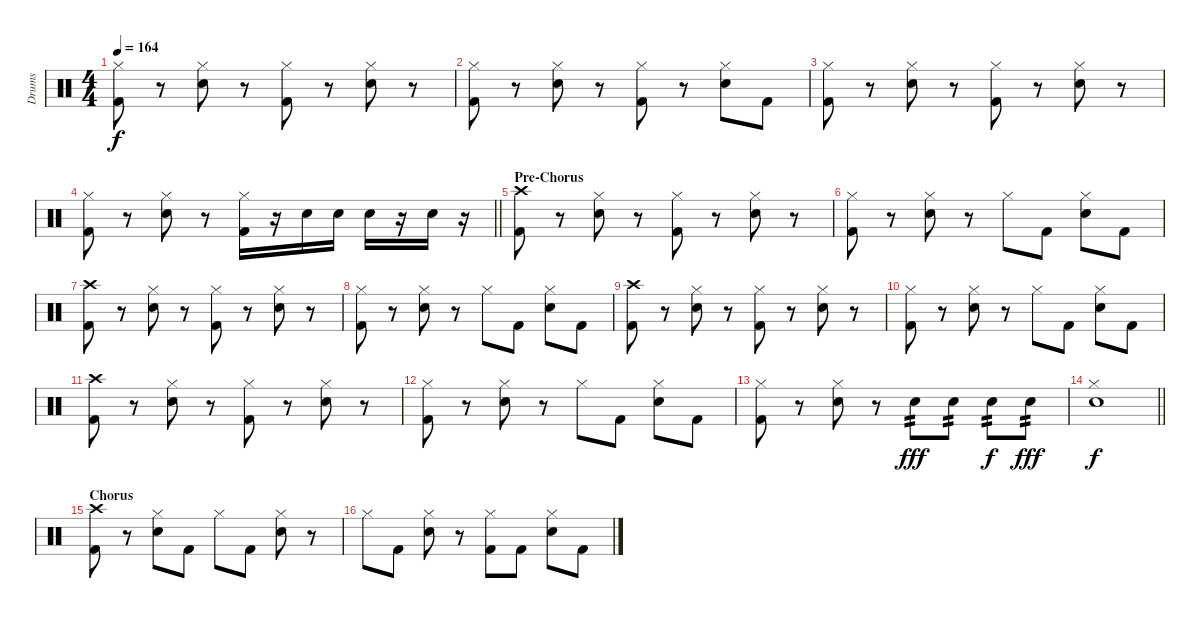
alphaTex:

\track ("Drums" "Drums") {instrument percussion}
\staff {score}
\articulation defaults
\ts (4 4)
\tempo 164
\clef neutral
\ks c
("Hi-Hat (closed)" "Kick (hit) 2").8{dy f} r.8 ("Hi-Hat (closed)" "Snare (hit) 2").8 r.8 ("Hi-Hat (closed)" "Kick (hit) 2").8 r.8 ("Hi-Hat (closed)" "Snare (hit) 2").8 r.8 |
("Hi-Hat (closed)" "Kick (hit) 2").8 r.8 ("Hi-Hat (closed)" "Snare (hit) 2").8 r.8 ("Hi-Hat (closed)" "Kick (hit) 2").8 r.8 ("Hi-Hat (closed)" "Snare (hit) 2").8 "Kick (hit) 2".8 |
("Hi-Hat (closed)" "Kick (hit) 2").8 r.8 ("Hi-Hat (closed)" "Snare (hit) 2").8 r.8 ("Hi-Hat (closed)" "Kick (hit) 2").8 r.8 ("Hi-Hat (closed)" "Snare (hit) 2").8 r.8 |
\barLineRight lightlight
("Hi-Hat (closed)" "Kick (hit) 2").8 r.8 ("Hi-Hat (closed)" "Snare (hit) 2").8 r.8 ("Hi-Hat (closed)" "Kick (hit) 2").16 r.16 "Snare (hit) 2".16 "Snare (hit) 2".16 "Snare (hit) 2".16 r.16 "Snare (hit) 2".16 r.16 |
\section ("" "Pre-Chorus")
("Crash high (hit)" "Kick (hit) 2").8 r.8 ("Hi-Hat (closed)" "Snare (hit) 2").8 r.8 ("Hi-Hat (closed)" "Kick (hit) 2").8 r.8 ("Hi-Hat (closed)" "Snare (hit) 2").8 r.8 |
("Hi-Hat (closed)" "Kick (hit) 2").8 r.8 ("Hi-Hat (closed)" "Snare (hit) 2").8 r.8 "Hi-Hat (closed)".8 "Kick (hit) 2".8 ("Hi-Hat (closed)" "Snare (hit) 2").8 "Kick (hit) 2".8 |
("Crash high (hit)" "Kick (hit) 2").8 r.8 ("Hi-Hat (closed)" "Snare (hit) 2").8 r.8 ("Hi-Hat (closed)" "Kick (hit) 2").8 r.8 ("Hi-Hat (closed)" "Snare (hit) 2").8 r.8 |
("Hi-Hat (closed)" "Kick (hit) 2").8 r.8 ("Hi-Hat (closed)" "Snare (hit) 2").8 r.8 "Hi-Hat (closed)".8 "Kick (hit) 2".8 ("Hi-Hat (closed)" "Snare (hit) 2").8 "Kick (hit) 2".8 |
("Crash high (hit)" "Kick (hit) 2").8 r.8 ("Hi-Hat (closed)" "Snare (hit) 2").8 r.8 ("Hi-Hat (closed)" "Kick (hit) 2").8 r.8 ("Hi-Hat (closed)" "Snare (hit) 2").8 r.8 |
("Hi-Hat (closed)" "Kick (hit) 2").8 r.8 ("Hi-Hat (closed)" "Snare (hit) 2").8 r.8 "Hi-Hat (closed)".8 "Kick (hit) 2".8 ("Hi-Hat (closed)" "Snare (hit) 2").8 "Kick (hit) 2".8 |
("Crash high (hit)" "Kick (hit) 2").8 r.8 ("Hi-Hat (closed)" "Snare (hit) 2").8 r.8 ("Hi-Hat (closed)" "Kick (hit) 2").8 r.8 ("Hi-Hat (closed)" "Snare (hit) 2").8 r.8 |
("Hi-Hat (closed)" "Kick (hit) 2").8 r.8 ("Hi-Hat (closed)" "Snare (hit) 2").8 r.8 "Hi-Hat (closed)".8 "Kick (hit) 2".8 ("Hi-Hat (closed)" "Snare (hit) 2").8 "Kick (hit) 2".8 |
("Hi-Hat (closed)" "Kick (hit) 2").8 r.8 ("Hi-Hat (closed)" "Snare (hit) 2").8 r.8 "Snare (hit) 2".8{tp 2 dy fff} "Snare (hit) 2".8{tp 2} "Snare (hit) 2".8{tp 2 dy f} "Snare (hit) 2".8{tp 2 dy fff} |
\barLineRight lightlight
("Hi-Hat (closed)" "Snare (hit) 2").1{dy f} |
\section ("" "Chorus")
("Crash high (hit)" "Kick (hit) 2").8 r.8 ("Hi-Hat (closed)" "Snare (hit) 2").8 "Kick (hit) 2".8 "Hi-Hat (closed)".8 "Kick (hit) 2".8 ("Hi-Hat (closed)" "Snare (hit) 2").8 r.8 |
"Hi-Hat (closed)".8 "Kick (hit) 2".8 ("Hi-Hat (closed)" "Snare (hit) 2").8 r.8 ("Hi-Hat (closed)" "Kick (hit) 2").8 "Kick (hit) 2".8 ("Hi-Hat (closed)" "Snare (hit) 2").8 "Kick (hit) 2".8
